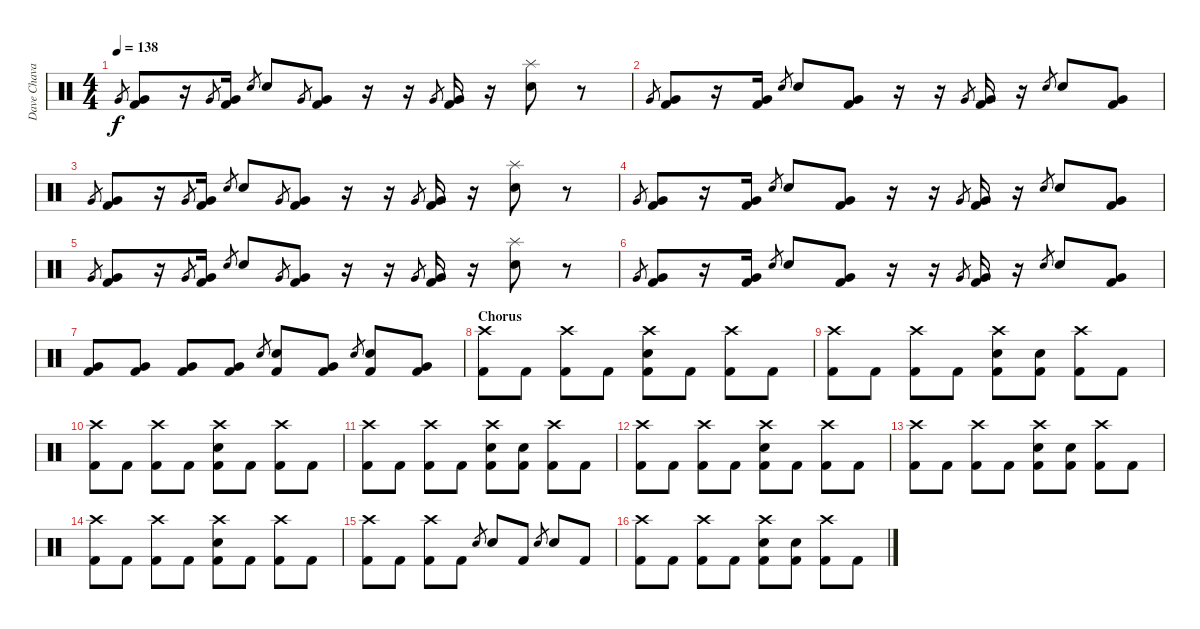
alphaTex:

\track ("Dave Chavarri - Drums" "Dave Chava") {instrument percussion}
\staff {score}
\articulation defaults
\ts (4 4)
\tempo 138
\clef neutral
\ks c "Very Low Tom (hit)".8{gr dy f}
("Very Low Tom (hit)" "Kick (hit) 2").8 r.16 "Very Low Tom (hit)".8{gr} ("Very Low Tom (hit)" "Kick (hit) 2").16 "Electric Snare (hit)".8{gr} "Electric Snare (hit)".8 "Very Low Tom (hit)".8{gr} ("Very Low Tom (hit)" "Kick (hit) 2").8 r.16 r.16 "Very Low Tom (hit)".8{gr} ("Very Low Tom (hit)" "Kick (hit) 2").16 r.16 ("Splash (hit)" "Electric Snare (hit)").8 r.8 |
"Very Low Tom (hit)".8{gr} ("Very Low Tom (hit)" "Kick (hit) 2").8 r.16 ("Very Low Tom (hit)" "Kick (hit) 2").16 "Electric Snare (hit)".8{gr} "Electric Snare (hit)".8 ("Very Low Tom (hit)" "Kick (hit) 2").8 r.16 r.16 "Very Low Tom (hit)".8{gr} ("Very Low Tom (hit)" "Kick (hit) 2").16 r.16 "Electric Snare (hit)".8{gr} "Electric Snare (hit)".8 ("Very Low Tom (hit)" "Kick (hit) 2").8 |
"Very Low Tom (hit)".8{gr} ("Very Low Tom (hit)" "Kick (hit) 2").8 r.16 "Very Low Tom (hit)".8{gr} ("Very Low Tom (hit)" "Kick (hit) 2").16 "Electric Snare (hit)".8{gr} "Electric Snare (hit)".8 "Very Low Tom (hit)".8{gr} ("Very Low Tom (hit)" "Kick (hit) 2").8 r.16 r.16 "Very Low Tom (hit)".8{gr} ("Very Low Tom (hit)" "Kick (hit) 2").16 r.16 ("Splash (hit)" "Electric Snare (hit)").8 r.8 |
"Very Low Tom (hit)".8{gr} ("Very Low Tom (hit)" "Kick (hit) 2").8 r.16 ("Very Low Tom (hit)" "Kick (hit) 2").16 "Electric Snare (hit)".8{gr} "Electric Snare (hit)".8 ("Very Low Tom (hit)" "Kick (hit) 2").8 r.16 r.16 "Very Low Tom (hit)".8{gr} ("Very Low Tom (hit)" "Kick (hit) 2").16 r.16 "Electric Snare (hit)".8{gr} "Electric Snare (hit)".8 ("Very Low Tom (hit)" "Kick (hit) 2").8 |
"Very Low Tom (hit)".8{gr} ("Very Low Tom (hit)" "Kick (hit) 2").8 r.16 "Very Low Tom (hit)".8{gr} ("Very Low Tom (hit)" "Kick (hit) 2").16 "Electric Snare (hit)".8{gr} "Electric Snare (hit)".8 "Very Low Tom (hit)".8{gr} ("Very Low Tom (hit)" "Kick (hit) 2").8 r.16 r.16 "Very Low Tom (hit)".8{gr} ("Very Low Tom (hit)" "Kick (hit) 2").16 r.16 ("Splash (hit)" "Electric Snare (hit)").8 r.8 |
"Very Low Tom (hit)".8{gr} ("Very Low Tom (hit)" "Kick (hit) 2").8 r.16 ("Very Low Tom (hit)" "Kick (hit) 2").16 "Electric Snare (hit)".8{gr} "Electric Snare (hit)".8 ("Very Low Tom (hit)" "Kick (hit) 2").8 r.16 r.16 "Very Low Tom (hit)".8{gr} ("Very Low Tom (hit)" "Kick (hit) 2").16 r.16 "Electric Snare (hit)".8{gr} "Electric Snare (hit)".8 ("Very Low Tom (hit)" "Kick (hit) 2").8 |
("Very Low Tom (hit)" "Kick (hit) 2").8 ("Very Low Tom (hit)" "Kick (hit) 2").8 ("Very Low Tom (hit)" "Kick (hit) 2").8 ("Very Low Tom (hit)" "Kick (hit) 2").8 "Electric Snare (hit)".8{gr} ("Electric Snare (hit)" "Kick (hit) 2").8 ("Very Low Tom (hit)" "Kick (hit) 2").8 "Electric Snare (hit)".8{gr} ("Electric Snare (hit)" "Kick (hit) 2").8 ("Very Low Tom (hit)" "Kick (hit) 2").8 |
\section ("" "Chorus")
("Crash high (hit)" "Kick (hit) 2").8 "Kick (hit) 2".8 ("Crash high (hit)" "Kick (hit) 2").8 "Kick (hit) 2".8 ("Crash high (hit)" "Electric Snare (hit)" "Kick (hit) 2").8 "Kick (hit) 2".8 ("Crash high (hit)" "Kick (hit) 2").8 "Kick (hit) 2".8 |
("Crash high (hit)" "Kick (hit) 2").8 "Kick (hit) 2".8 ("Crash high (hit)" "Kick (hit) 2").8 "Kick (hit) 2".8 ("Crash high (hit)" "Electric Snare (hit)" "Kick (hit) 2").8 ("Electric Snare (hit)" "Kick (hit) 2").8 ("Crash high (hit)" "Kick (hit) 2").8 "Kick (hit) 2".8 |
("Crash high (hit)" "Kick (hit) 2").8 "Kick (hit) 2".8 ("Crash high (hit)" "Kick (hit) 2").8 "Kick (hit) 2".8 ("Crash high (hit)" "Electric Snare (hit)" "Kick (hit) 2").8 "Kick (hit) 2".8 ("Crash high (hit)" "Kick (hit) 2").8 "Kick (hit) 2".8 |
("Crash high (hit)" "Kick (hit) 2").8 "Kick (hit) 2".8 ("Crash high (hit)" "Kick (hit) 2").8 "Kick (hit) 2".8 ("Crash high (hit)" "Electric Snare (hit)" "Kick (hit) 2").8 ("Electric Snare (hit)" "Kick (hit) 2").8 ("Crash high (hit)" "Kick (hit) 2").8 "Kick (hit) 2".8 |
("Crash high (hit)" "Kick (hit) 2").8 "Kick (hit) 2".8 ("Crash high (hit)" "Kick (hit) 2").8 "Kick (hit) 2".8 ("Crash high (hit)" "Electric Snare (hit)" "Kick (hit) 2").8 "Kick (hit) 2".8 ("Crash high (hit)" "Kick (hit) 2").8 "Kick (hit) 2".8 |
("Crash high (hit)" "Kick (hit) 2").8 "Kick (hit) 2".8 ("Crash high (hit)" "Kick (hit) 2").8 "Kick (hit) 2".8 ("Crash high (hit)" "Electric Snare (hit)" "Kick (hit) 2").8 ("Electric Snare (hit)" "Kick (hit) 2").8 ("Crash high (hit)" "Kick (hit) 2").8 "Kick (hit) 2".8 |
("Crash high (hit)" "Kick (hit) 2").8 "Kick (hit) 2".8 ("Crash high (hit)" "Kick (hit) 2").8 "Kick (hit) 2".8 ("Crash high (hit)" "Electric Snare (hit)" "Kick (hit) 2").8 "Kick (hit) 2".8 ("Crash high (hit)" "Kick (hit) 2").8 "Kick (hit) 2".8 |
("Crash high (hit)" "Kick (hit) 2").8 "Kick (hit) 2".8 ("Crash high (hit)" "Kick (hit) 2").8 "Kick (hit) 2".8 "Electric Snare (hit)".8{gr} "Electric Snare (hit)".8 "Kick (hit) 2".8 "Electric Snare (hit)".8{gr} "Electric Snare (hit)".8 "Kick (hit) 2".8 |
("Crash high (hit)" "Kick (hit) 2").8 "Kick (hit) 2".8 ("Crash high (hit)" "Kick (hit) 2").8 "Kick (hit) 2".8 ("Crash high (hit)" "Electric Snare (hit)" "Kick (hit) 2").8 ("Electric Snare (hit)" "Kick (hit) 2").8 ("Crash high (hit)" "Kick (hit) 2").8 "Kick (hit) 2".8
